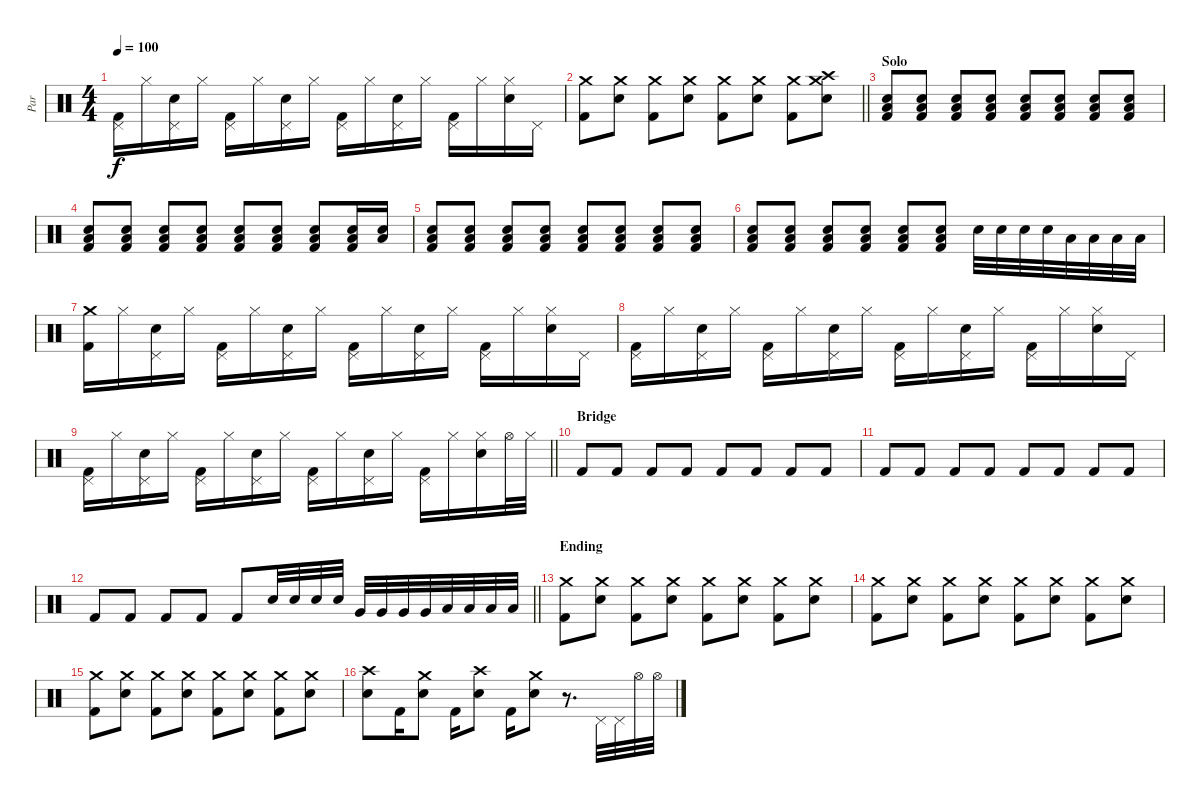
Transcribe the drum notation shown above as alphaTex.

\track ("Par" "Par") {instrument percussion}
\staff {score}
\articulation defaults
\ts (4 4)
\tempo 100
\clef neutral
\ks c
("Pedal Hi-Hat (hit)" "Kick (hit) 2").16{dy f} "Hi-Hat (closed)".16 ("Pedal Hi-Hat (hit)" "Snare (hit) 2").16 "Hi-Hat (closed)".16 ("Pedal Hi-Hat (hit)" "Kick (hit) 2").16 "Hi-Hat (closed)".16 ("Pedal Hi-Hat (hit)" "Snare (hit) 2").16 "Hi-Hat (closed)".16 ("Pedal Hi-Hat (hit)" "Kick (hit) 2").16 "Hi-Hat (closed)".16 ("Pedal Hi-Hat (hit)" "Snare (hit) 2").16 "Hi-Hat (closed)".16 ("Pedal Hi-Hat (hit)" "Kick (hit) 2").16 "Hi-Hat (closed)".16 ("Hi-Hat (closed)" "Snare (hit) 2").16 "Pedal Hi-Hat (hit)".16 |
\barLineRight lightlight
("Crash medium (hit)" "Kick (hit) 2").8 ("Crash medium (hit)" "Snare (hit) 2").8 ("Crash medium (hit)" "Kick (hit) 2").8 ("Crash medium (hit)" "Snare (hit) 2").8 ("Crash medium (hit)" "Kick (hit) 2").8 ("Crash medium (hit)" "Snare (hit) 2").8 ("Crash medium (hit)" "Kick (hit) 2").8 ("Crash medium (hit)" "Crash high (hit)" "Snare (hit) 2").8 |
\section ("" "Solo")
("Snare (hit) 2" "Low Floor Tom (hit)" "Kick (hit) 2").8 ("Snare (hit) 2" "Low Floor Tom (hit)" "Kick (hit) 2").8 ("Snare (hit) 2" "Low Floor Tom (hit)" "Kick (hit) 2").8 ("Snare (hit) 2" "Low Floor Tom (hit)" "Kick (hit) 2").8 ("Snare (hit) 2" "Low Floor Tom (hit)" "Kick (hit) 2").8 ("Snare (hit) 2" "Low Floor Tom (hit)" "Kick (hit) 2").8 ("Snare (hit) 2" "Low Floor Tom (hit)" "Kick (hit) 2").8 ("Snare (hit) 2" "Low Floor Tom (hit)" "Kick (hit) 2").8 |
("Snare (hit) 2" "Low Floor Tom (hit)" "Kick (hit) 2").8 ("Snare (hit) 2" "Low Floor Tom (hit)" "Kick (hit) 2").8 ("Snare (hit) 2" "Low Floor Tom (hit)" "Kick (hit) 2").8 ("Snare (hit) 2" "Low Floor Tom (hit)" "Kick (hit) 2").8 ("Snare (hit) 2" "Low Floor Tom (hit)" "Kick (hit) 2").8 ("Snare (hit) 2" "Low Floor Tom (hit)" "Kick (hit) 2").8 ("Snare (hit) 2" "Low Floor Tom (hit)" "Kick (hit) 2").8 ("Snare (hit) 2" "Low Floor Tom (hit)" "Kick (hit) 2").16 ("Snare (hit) 2" "Low Floor Tom (hit)").16 |
("Snare (hit) 2" "Low Floor Tom (hit)" "Kick (hit) 2").8 ("Snare (hit) 2" "Low Floor Tom (hit)" "Kick (hit) 2").8 ("Snare (hit) 2" "Low Floor Tom (hit)" "Kick (hit) 2").8 ("Snare (hit) 2" "Low Floor Tom (hit)" "Kick (hit) 2").8 ("Snare (hit) 2" "Low Floor Tom (hit)" "Kick (hit) 2").8 ("Snare (hit) 2" "Low Floor Tom (hit)" "Kick (hit) 2").8 ("Snare (hit) 2" "Low Floor Tom (hit)" "Kick (hit) 2").8 ("Snare (hit) 2" "Low Floor Tom (hit)" "Kick (hit) 2").8 |
("Snare (hit) 2" "Low Floor Tom (hit)" "Kick (hit) 2").8 ("Snare (hit) 2" "Low Floor Tom (hit)" "Kick (hit) 2").8 ("Snare (hit) 2" "Low Floor Tom (hit)" "Kick (hit) 2").8 ("Snare (hit) 2" "Low Floor Tom (hit)" "Kick (hit) 2").8 ("Snare (hit) 2" "Low Floor Tom (hit)" "Kick (hit) 2").8 ("Snare (hit) 2" "Low Floor Tom (hit)" "Kick (hit) 2").8 "Snare (hit) 2".32 "Snare (hit) 2".32 "Snare (hit) 2".32 "Snare (hit) 2".32 "Low Floor Tom (hit)".32 "Low Floor Tom (hit)".32 "Low Floor Tom (hit)".32 "Low Floor Tom (hit)".32 |
("Crash medium (hit)" "Kick (hit) 2").16 "Hi-Hat (closed)".16 ("Pedal Hi-Hat (hit)" "Snare (hit) 2").16 "Hi-Hat (closed)".16 ("Pedal Hi-Hat (hit)" "Kick (hit) 2").16 "Hi-Hat (closed)".16 ("Pedal Hi-Hat (hit)" "Snare (hit) 2").16 "Hi-Hat (closed)".16 ("Pedal Hi-Hat (hit)" "Kick (hit) 2").16 "Hi-Hat (closed)".16 ("Pedal Hi-Hat (hit)" "Snare (hit) 2").16 "Hi-Hat (closed)".16 ("Pedal Hi-Hat (hit)" "Kick (hit) 2").16 "Hi-Hat (closed)".16 ("Hi-Hat (closed)" "Snare (hit) 2").16 "Pedal Hi-Hat (hit)".16 |
("Pedal Hi-Hat (hit)" "Kick (hit) 2").16 "Hi-Hat (closed)".16 ("Pedal Hi-Hat (hit)" "Snare (hit) 2").16 "Hi-Hat (closed)".16 ("Pedal Hi-Hat (hit)" "Kick (hit) 2").16 "Hi-Hat (closed)".16 ("Pedal Hi-Hat (hit)" "Snare (hit) 2").16 "Hi-Hat (closed)".16 ("Pedal Hi-Hat (hit)" "Kick (hit) 2").16 "Hi-Hat (closed)".16 ("Pedal Hi-Hat (hit)" "Snare (hit) 2").16 "Hi-Hat (closed)".16 ("Pedal Hi-Hat (hit)" "Kick (hit) 2").16 "Hi-Hat (closed)".16 ("Hi-Hat (closed)" "Snare (hit) 2").16 "Pedal Hi-Hat (hit)".16 |
\barLineRight lightlight
("Pedal Hi-Hat (hit)" "Kick (hit) 2").16 "Hi-Hat (closed)".16 ("Pedal Hi-Hat (hit)" "Snare (hit) 2").16 "Hi-Hat (closed)".16 ("Pedal Hi-Hat (hit)" "Kick (hit) 2").16 "Hi-Hat (closed)".16 ("Pedal Hi-Hat (hit)" "Snare (hit) 2").16 "Hi-Hat (closed)".16 ("Pedal Hi-Hat (hit)" "Kick (hit) 2").16 "Hi-Hat (closed)".16 ("Pedal Hi-Hat (hit)" "Snare (hit) 2").16 "Hi-Hat (closed)".16 ("Pedal Hi-Hat (hit)" "Kick (hit) 2").16 "Hi-Hat (closed)".16 ("Hi-Hat (closed)" "Snare (hit) 2").16 "Hi-Hat (open)".32 "Hi-Hat (closed)".32 |
\section ("" "Bridge")
"Kick (hit) 2".8 "Kick (hit) 2".8 "Kick (hit) 2".8 "Kick (hit) 2".8 "Kick (hit) 2".8 "Kick (hit) 2".8 "Kick (hit) 2".8 "Kick (hit) 2".8 |
"Kick (hit) 2".8 "Kick (hit) 2".8 "Kick (hit) 2".8 "Kick (hit) 2".8 "Kick (hit) 2".8 "Kick (hit) 2".8 "Kick (hit) 2".8 "Kick (hit) 2".8 |
\barLineRight lightlight "Kick (hit) 2".8 "Kick (hit) 2".8 "Kick (hit) 2".8 "Kick (hit) 2".8 "Kick (hit) 2".8 "Snare (hit) 2".32 "Snare (hit) 2".32 "Snare (hit) 2".32 "Snare (hit) 2".32 "Very Low Tom (hit)".32 "Very Low Tom (hit)".32 "Very Low Tom (hit)".32 "Very Low Tom (hit)".32 "Low Floor Tom (hit)".32 "Low Floor Tom (hit)".32 "Low Floor Tom (hit)".32 "Low Floor Tom (hit)".32
|
\section ("" "Ending")
("Crash medium (hit)" "Kick (hit) 2").8 ("Crash medium (hit)" "Snare (hit) 2").8 ("Crash medium (hit)" "Kick (hit) 2").8 ("Crash medium (hit)" "Snare (hit) 2").8 ("Crash medium (hit)" "Kick (hit) 2").8 ("Crash medium (hit)" "Snare (hit) 2").8 ("Crash medium (hit)" "Kick (hit) 2").8 ("Crash medium (hit)" "Snare (hit) 2").8 |
("Crash medium (hit)" "Kick (hit) 2").8 ("Crash medium (hit)" "Snare (hit) 2").8 ("Crash medium (hit)" "Kick (hit) 2").8 ("Crash medium (hit)" "Snare (hit) 2").8 ("Crash medium (hit)" "Kick (hit) 2").8 ("Crash medium (hit)" "Snare (hit) 2").8 ("Crash medium (hit)" "Kick (hit) 2").8 ("Crash medium (hit)" "Snare (hit) 2").8 |
("Crash medium (hit)" "Kick (hit) 2").8 ("Crash medium (hit)" "Snare (hit) 2").8 ("Crash medium (hit)" "Kick (hit) 2").8 ("Crash medium (hit)" "Snare (hit) 2").8 ("Crash medium (hit)" "Kick (hit) 2").8 ("Crash medium (hit)" "Snare (hit) 2").8 ("Crash medium (hit)" "Kick (hit) 2").8 ("Crash medium (hit)" "Snare (hit) 2").8 |
("Crash high (hit)" "Snare (hit) 2").8 "Kick (hit) 2".16 ("Crash medium (hit)" "Snare (hit) 2").8 "Kick (hit) 2".16 ("Crash high (hit)" "Snare (hit) 2").8 "Kick (hit) 2".16 ("Crash medium (hit)" "Snare (hit) 2").8 r.8{d} "Pedal Hi-Hat (hit)".32 "Pedal Hi-Hat (hit)".32 "Hi-Hat (open)".32 "Hi-Hat (open)".32
